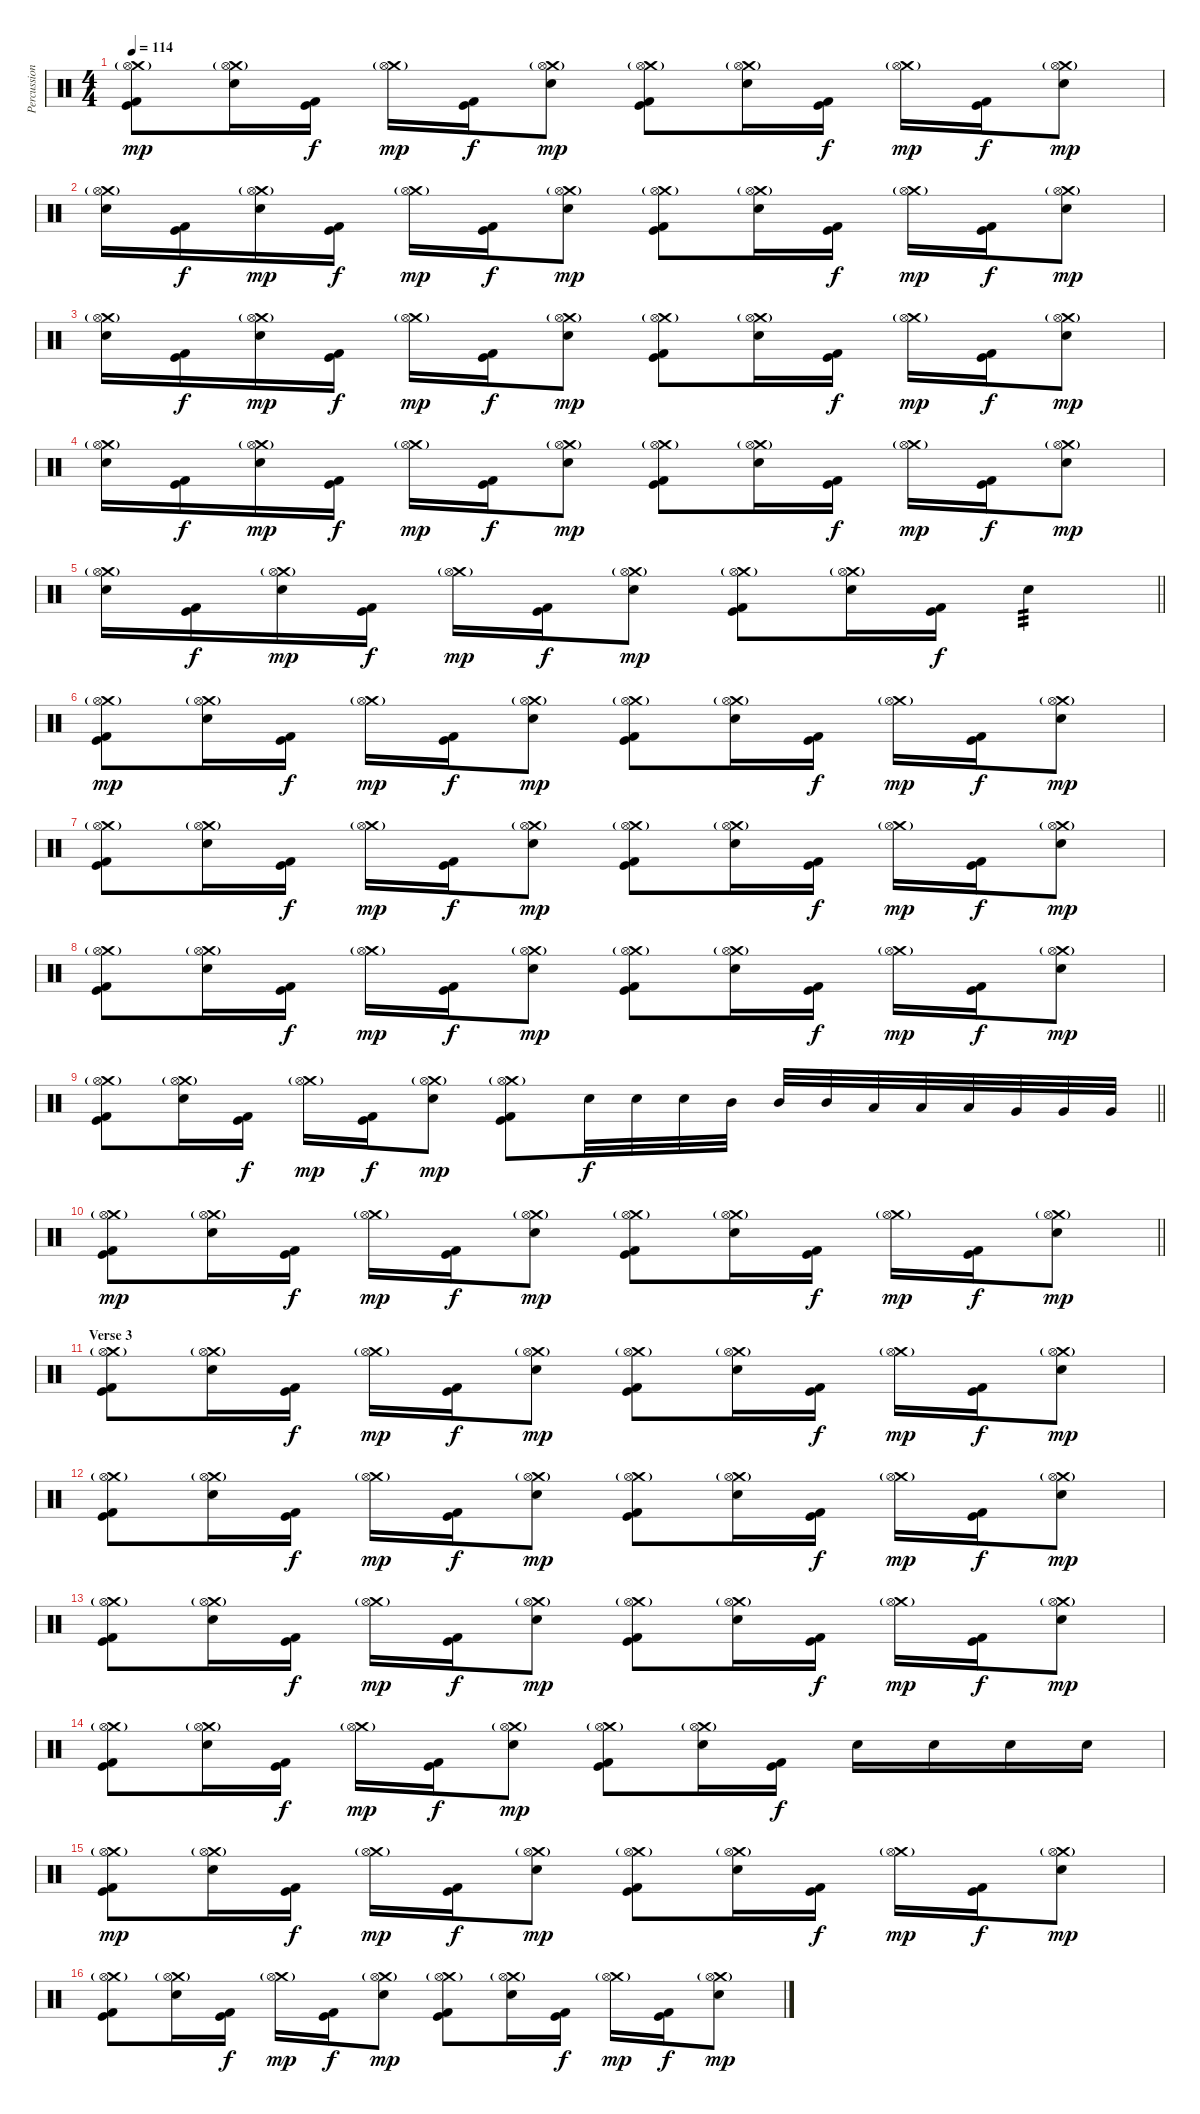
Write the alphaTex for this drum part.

\track ("Percussion" "Percussion") {instrument percussion}
\staff {score}
\articulation defaults
\ts (4 4)
\tempo 114
\clef neutral
\ks c
("Crash medium (hit)"{g} "Hi-Hat (open)" "Kick (hit)" "Kick (hit) 2").8{dy mp} ("Crash medium (hit)"{g} "Hi-Hat (open)" "Electric Snare (hit)").16 ("Kick (hit)" "Kick (hit) 2").16{dy f} ("Crash medium (hit)"{g} "Hi-Hat (open)").16{dy mp} ("Kick (hit)" "Kick (hit) 2").16{dy f} ("Crash medium (hit)"{g} "Hi-Hat (open)" "Electric Snare (hit)").8{dy mp} ("Crash medium (hit)"{g} "Hi-Hat (open)" "Kick (hit)" "Kick (hit) 2").8 ("Crash medium (hit)"{g} "Hi-Hat (open)" "Electric Snare (hit)").16 ("Kick (hit)" "Kick (hit) 2").16{dy f} ("Crash medium (hit)"{g} "Hi-Hat (open)").16{dy mp} ("Kick (hit)" "Kick (hit) 2").16{dy f} ("Crash medium (hit)"{g} "Hi-Hat (open)" "Electric Snare (hit)").8{dy mp} |
("Crash medium (hit)"{g} "Hi-Hat (open)" "Electric Snare (hit)").16 ("Kick (hit)" "Kick (hit) 2").16{dy f} ("Crash medium (hit)"{g} "Hi-Hat (open)" "Electric Snare (hit)").16{dy mp} ("Kick (hit)" "Kick (hit) 2").16{dy f} ("Crash medium (hit)"{g} "Hi-Hat (open)").16{dy mp} ("Kick (hit)" "Kick (hit) 2").16{dy f} ("Crash medium (hit)"{g} "Hi-Hat (open)" "Electric Snare (hit)").8{dy mp} ("Crash medium (hit)"{g} "Hi-Hat (open)" "Kick (hit)" "Kick (hit) 2").8 ("Crash medium (hit)"{g} "Hi-Hat (open)" "Electric Snare (hit)").16 ("Kick (hit)" "Kick (hit) 2").16{dy f} ("Crash medium (hit)"{g} "Hi-Hat (open)").16{dy mp} ("Kick (hit)" "Kick (hit) 2").16{dy f} ("Crash medium (hit)"{g} "Hi-Hat (open)" "Electric Snare (hit)").8{dy mp} |
("Crash medium (hit)"{g} "Hi-Hat (open)" "Electric Snare (hit)").16 ("Kick (hit)" "Kick (hit) 2").16{dy f} ("Crash medium (hit)"{g} "Hi-Hat (open)" "Electric Snare (hit)").16{dy mp} ("Kick (hit)" "Kick (hit) 2").16{dy f} ("Crash medium (hit)"{g} "Hi-Hat (open)").16{dy mp} ("Kick (hit)" "Kick (hit) 2").16{dy f} ("Crash medium (hit)"{g} "Hi-Hat (open)" "Electric Snare (hit)").8{dy mp} ("Crash medium (hit)"{g} "Hi-Hat (open)" "Kick (hit)" "Kick (hit) 2").8 ("Crash medium (hit)"{g} "Hi-Hat (open)" "Electric Snare (hit)").16 ("Kick (hit)" "Kick (hit) 2").16{dy f} ("Crash medium (hit)"{g} "Hi-Hat (open)").16{dy mp} ("Kick (hit)" "Kick (hit) 2").16{dy f} ("Crash medium (hit)"{g} "Hi-Hat (open)" "Electric Snare (hit)").8{dy mp} |
("Crash medium (hit)"{g} "Hi-Hat (open)" "Electric Snare (hit)").16 ("Kick (hit)" "Kick (hit) 2").16{dy f} ("Crash medium (hit)"{g} "Hi-Hat (open)" "Electric Snare (hit)").16{dy mp} ("Kick (hit)" "Kick (hit) 2").16{dy f} ("Crash medium (hit)"{g} "Hi-Hat (open)").16{dy mp} ("Kick (hit)" "Kick (hit) 2").16{dy f} ("Crash medium (hit)"{g} "Hi-Hat (open)" "Electric Snare (hit)").8{dy mp} ("Crash medium (hit)"{g} "Hi-Hat (open)" "Kick (hit)" "Kick (hit) 2").8 ("Crash medium (hit)"{g} "Hi-Hat (open)" "Electric Snare (hit)").16 ("Kick (hit)" "Kick (hit) 2").16{dy f} ("Crash medium (hit)"{g} "Hi-Hat (open)").16{dy mp} ("Kick (hit)" "Kick (hit) 2").16{dy f} ("Crash medium (hit)"{g} "Hi-Hat (open)" "Electric Snare (hit)").8{dy mp} |
\barLineRight lightlight
("Crash medium (hit)"{g} "Hi-Hat (open)" "Electric Snare (hit)").16 ("Kick (hit)" "Kick (hit) 2").16{dy f} ("Crash medium (hit)"{g} "Hi-Hat (open)" "Electric Snare (hit)").16{dy mp} ("Kick (hit)" "Kick (hit) 2").16{dy f} ("Crash medium (hit)"{g} "Hi-Hat (open)").16{dy mp} ("Kick (hit)" "Kick (hit) 2").16{dy f} ("Crash medium (hit)"{g} "Hi-Hat (open)" "Electric Snare (hit)").8{dy mp} ("Crash medium (hit)"{g} "Hi-Hat (open)" "Kick (hit)" "Kick (hit) 2").8 ("Crash medium (hit)"{g} "Hi-Hat (open)" "Electric Snare (hit)").16 ("Kick (hit)" "Kick (hit) 2").16{dy f} "Electric Snare (hit)".4{tp 3} |
\section ("" "")
("Crash medium (hit)"{g} "Hi-Hat (open)" "Kick (hit)" "Kick (hit) 2").8{dy mp} ("Crash medium (hit)"{g} "Hi-Hat (open)" "Electric Snare (hit)").16 ("Kick (hit)" "Kick (hit) 2").16{dy f} ("Crash medium (hit)"{g} "Hi-Hat (open)").16{dy mp} ("Kick (hit)" "Kick (hit) 2").16{dy f} ("Crash medium (hit)"{g} "Hi-Hat (open)" "Electric Snare (hit)").8{dy mp} ("Crash medium (hit)"{g} "Hi-Hat (open)" "Kick (hit)" "Kick (hit) 2").8 ("Crash medium (hit)"{g} "Hi-Hat (open)" "Electric Snare (hit)").16 ("Kick (hit)" "Kick (hit) 2").16{dy f} ("Crash medium (hit)"{g} "Hi-Hat (open)").16{dy mp} ("Kick (hit)" "Kick (hit) 2").16{dy f} ("Crash medium (hit)"{g} "Hi-Hat (open)" "Electric Snare (hit)").8{dy mp} |
("Crash medium (hit)"{g} "Hi-Hat (open)" "Kick (hit)" "Kick (hit) 2").8 ("Crash medium (hit)"{g} "Hi-Hat (open)" "Electric Snare (hit)").16 ("Kick (hit)" "Kick (hit) 2").16{dy f} ("Crash medium (hit)"{g} "Hi-Hat (open)").16{dy mp} ("Kick (hit)" "Kick (hit) 2").16{dy f} ("Crash medium (hit)"{g} "Hi-Hat (open)" "Electric Snare (hit)").8{dy mp} ("Crash medium (hit)"{g} "Hi-Hat (open)" "Kick (hit)" "Kick (hit) 2").8 ("Crash medium (hit)"{g} "Hi-Hat (open)" "Electric Snare (hit)").16 ("Kick (hit)" "Kick (hit) 2").16{dy f} ("Crash medium (hit)"{g} "Hi-Hat (open)").16{dy mp} ("Kick (hit)" "Kick (hit) 2").16{dy f} ("Crash medium (hit)"{g} "Hi-Hat (open)" "Electric Snare (hit)").8{dy mp} |
("Crash medium (hit)"{g} "Hi-Hat (open)" "Kick (hit)" "Kick (hit) 2").8 ("Crash medium (hit)"{g} "Hi-Hat (open)" "Electric Snare (hit)").16 ("Kick (hit)" "Kick (hit) 2").16{dy f} ("Crash medium (hit)"{g} "Hi-Hat (open)").16{dy mp} ("Kick (hit)" "Kick (hit) 2").16{dy f} ("Crash medium (hit)"{g} "Hi-Hat (open)" "Electric Snare (hit)").8{dy mp} ("Crash medium (hit)"{g} "Hi-Hat (open)" "Kick (hit)" "Kick (hit) 2").8 ("Crash medium (hit)"{g} "Hi-Hat (open)" "Electric Snare (hit)").16 ("Kick (hit)" "Kick (hit) 2").16{dy f} ("Crash medium (hit)"{g} "Hi-Hat (open)").16{dy mp} ("Kick (hit)" "Kick (hit) 2").16{dy f} ("Crash medium (hit)"{g} "Hi-Hat (open)" "Electric Snare (hit)").8{dy mp} |
\barLineRight lightlight
("Crash medium (hit)"{g} "Hi-Hat (open)" "Kick (hit)" "Kick (hit) 2").8 ("Crash medium (hit)"{g} "Hi-Hat (open)" "Electric Snare (hit)").16 ("Kick (hit)" "Kick (hit) 2").16{dy f} ("Crash medium (hit)"{g} "Hi-Hat (open)").16{dy mp} ("Kick (hit)" "Kick (hit) 2").16{dy f} ("Crash medium (hit)"{g} "Hi-Hat (open)" "Electric Snare (hit)").8{dy mp} ("Crash medium (hit)"{g} "Hi-Hat (open)" "Kick (hit)" "Kick (hit) 2").8 "Electric Snare (hit)".32{dy f} "Electric Snare (hit)".32 "Electric Snare (hit)".32 "Mid Tom (hit)".32 "Mid Tom (hit)".32 "Mid Tom (hit)".32 "Low Tom (hit)".32 "Low Tom (hit)".32 "Low Tom (hit)".32 "Very Low Tom (hit)".32 "Very Low Tom (hit)".32 "Very Low Tom (hit)".32 |
\section ("" "")
\barLineRight lightlight
("Crash medium (hit)"{g} "Hi-Hat (open)" "Kick (hit)" "Kick (hit) 2").8{dy mp} ("Crash medium (hit)"{g} "Hi-Hat (open)" "Electric Snare (hit)").16 ("Kick (hit)" "Kick (hit) 2").16{dy f} ("Crash medium (hit)"{g} "Hi-Hat (open)").16{dy mp} ("Kick (hit)" "Kick (hit) 2").16{dy f} ("Crash medium (hit)"{g} "Hi-Hat (open)" "Electric Snare (hit)").8{dy mp} ("Crash medium (hit)"{g} "Hi-Hat (open)" "Kick (hit)" "Kick (hit) 2").8 ("Crash medium (hit)"{g} "Hi-Hat (open)" "Electric Snare (hit)").16 ("Kick (hit)" "Kick (hit) 2").16{dy f} ("Crash medium (hit)"{g} "Hi-Hat (open)").16{dy mp} ("Kick (hit)" "Kick (hit) 2").16{dy f} ("Crash medium (hit)"{g} "Hi-Hat (open)" "Electric Snare (hit)").8{dy mp} |
\section ("" "Verse 3")
("Crash medium (hit)"{g} "Hi-Hat (open)" "Kick (hit)" "Kick (hit) 2").8 ("Crash medium (hit)"{g} "Hi-Hat (open)" "Electric Snare (hit)").16 ("Kick (hit)" "Kick (hit) 2").16{dy f} ("Crash medium (hit)"{g} "Hi-Hat (open)").16{dy mp} ("Kick (hit)" "Kick (hit) 2").16{dy f} ("Crash medium (hit)"{g} "Hi-Hat (open)" "Electric Snare (hit)").8{dy mp} ("Crash medium (hit)"{g} "Hi-Hat (open)" "Kick (hit)" "Kick (hit) 2").8 ("Crash medium (hit)"{g} "Hi-Hat (open)" "Electric Snare (hit)").16 ("Kick (hit)" "Kick (hit) 2").16{dy f} ("Crash medium (hit)"{g} "Hi-Hat (open)").16{dy mp} ("Kick (hit)" "Kick (hit) 2").16{dy f} ("Crash medium (hit)"{g} "Hi-Hat (open)" "Electric Snare (hit)").8{dy mp} |
("Crash medium (hit)"{g} "Hi-Hat (open)" "Kick (hit)" "Kick (hit) 2").8 ("Crash medium (hit)"{g} "Hi-Hat (open)" "Electric Snare (hit)").16 ("Kick (hit)" "Kick (hit) 2").16{dy f} ("Crash medium (hit)"{g} "Hi-Hat (open)").16{dy mp} ("Kick (hit)" "Kick (hit) 2").16{dy f} ("Crash medium (hit)"{g} "Hi-Hat (open)" "Electric Snare (hit)").8{dy mp} ("Crash medium (hit)"{g} "Hi-Hat (open)" "Kick (hit)" "Kick (hit) 2").8 ("Crash medium (hit)"{g} "Hi-Hat (open)" "Electric Snare (hit)").16 ("Kick (hit)" "Kick (hit) 2").16{dy f} ("Crash medium (hit)"{g} "Hi-Hat (open)").16{dy mp} ("Kick (hit)" "Kick (hit) 2").16{dy f} ("Crash medium (hit)"{g} "Hi-Hat (open)" "Electric Snare (hit)").8{dy mp} |
("Crash medium (hit)"{g} "Hi-Hat (open)" "Kick (hit)" "Kick (hit) 2").8 ("Crash medium (hit)"{g} "Hi-Hat (open)" "Electric Snare (hit)").16 ("Kick (hit)" "Kick (hit) 2").16{dy f} ("Crash medium (hit)"{g} "Hi-Hat (open)").16{dy mp} ("Kick (hit)" "Kick (hit) 2").16{dy f} ("Crash medium (hit)"{g} "Hi-Hat (open)" "Electric Snare (hit)").8{dy mp} ("Crash medium (hit)"{g} "Hi-Hat (open)" "Kick (hit)" "Kick (hit) 2").8 ("Crash medium (hit)"{g} "Hi-Hat (open)" "Electric Snare (hit)").16 ("Kick (hit)" "Kick (hit) 2").16{dy f} ("Crash medium (hit)"{g} "Hi-Hat (open)").16{dy mp} ("Kick (hit)" "Kick (hit) 2").16{dy f} ("Crash medium (hit)"{g} "Hi-Hat (open)" "Electric Snare (hit)").8{dy mp} |
("Crash medium (hit)"{g} "Hi-Hat (open)" "Kick (hit)" "Kick (hit) 2").8 ("Crash medium (hit)"{g} "Hi-Hat (open)" "Electric Snare (hit)").16 ("Kick (hit)" "Kick (hit) 2").16{dy f} ("Crash medium (hit)"{g} "Hi-Hat (open)").16{dy mp} ("Kick (hit)" "Kick (hit) 2").16{dy f} ("Crash medium (hit)"{g} "Hi-Hat (open)" "Electric Snare (hit)").8{dy mp} ("Crash medium (hit)"{g} "Hi-Hat (open)" "Kick (hit)" "Kick (hit) 2").8 ("Crash medium (hit)"{g} "Hi-Hat (open)" "Electric Snare (hit)").16 ("Kick (hit)" "Kick (hit) 2").16{dy f} "Electric Snare (hit)".16 "Electric Snare (hit)".16 "Electric Snare (hit)".16 "Electric Snare (hit)".16 |
("Crash medium (hit)"{g} "Hi-Hat (open)" "Kick (hit)" "Kick (hit) 2").8{dy mp} ("Crash medium (hit)"{g} "Hi-Hat (open)" "Electric Snare (hit)").16 ("Kick (hit)" "Kick (hit) 2").16{dy f} ("Crash medium (hit)"{g} "Hi-Hat (open)").16{dy mp} ("Kick (hit)" "Kick (hit) 2").16{dy f} ("Crash medium (hit)"{g} "Hi-Hat (open)" "Electric Snare (hit)").8{dy mp} ("Crash medium (hit)"{g} "Hi-Hat (open)" "Kick (hit)" "Kick (hit) 2").8 ("Crash medium (hit)"{g} "Hi-Hat (open)" "Electric Snare (hit)").16 ("Kick (hit)" "Kick (hit) 2").16{dy f} ("Crash medium (hit)"{g} "Hi-Hat (open)").16{dy mp} ("Kick (hit)" "Kick (hit) 2").16{dy f} ("Crash medium (hit)"{g} "Hi-Hat (open)" "Electric Snare (hit)").8{dy mp} |
("Crash medium (hit)"{g} "Hi-Hat (open)" "Kick (hit)" "Kick (hit) 2").8 ("Crash medium (hit)"{g} "Hi-Hat (open)" "Electric Snare (hit)").16 ("Kick (hit)" "Kick (hit) 2").16{dy f} ("Crash medium (hit)"{g} "Hi-Hat (open)").16{dy mp} ("Kick (hit)" "Kick (hit) 2").16{dy f} ("Crash medium (hit)"{g} "Hi-Hat (open)" "Electric Snare (hit)").8{dy mp} ("Crash medium (hit)"{g} "Hi-Hat (open)" "Kick (hit)" "Kick (hit) 2").8 ("Crash medium (hit)"{g} "Hi-Hat (open)" "Electric Snare (hit)").16 ("Kick (hit)" "Kick (hit) 2").16{dy f} ("Crash medium (hit)"{g} "Hi-Hat (open)").16{dy mp} ("Kick (hit)" "Kick (hit) 2").16{dy f} ("Crash medium (hit)"{g} "Hi-Hat (open)" "Electric Snare (hit)").8{dy mp}
